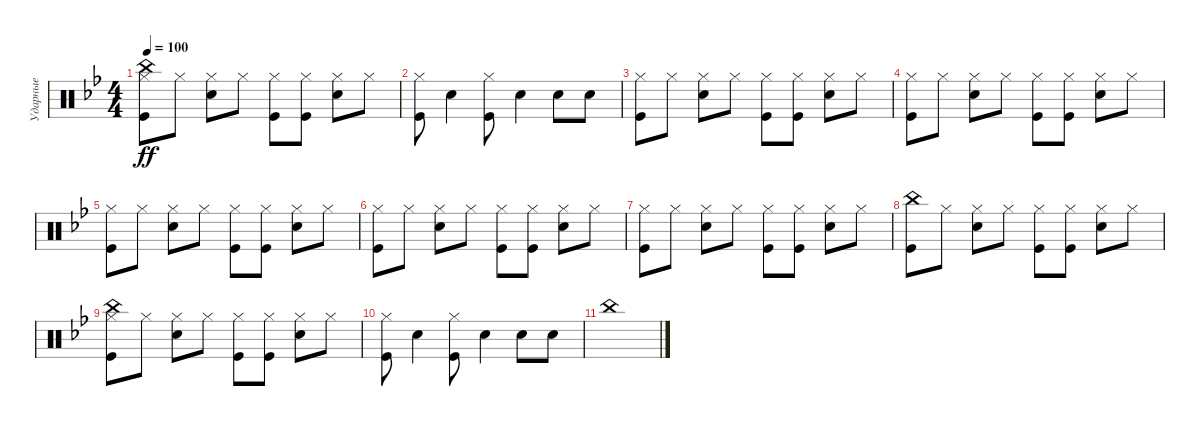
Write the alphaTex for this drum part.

\track ("Ударные" "Ударные") {instrument percussion}
\staff {score}
\articulation defaults
\ts (4 4)
\tempo 100
\clef neutral
\ks gminor
("Hi-Hat (closed)" "Kick (hit)" "China (hit)").8{dy ff} "Hi-Hat (closed)".8 ("Hi-Hat (closed)" "Snare (hit) 2").8 "Hi-Hat (closed)".8 ("Hi-Hat (closed)" "Kick (hit)").8 ("Hi-Hat (closed)" "Kick (hit)").8 ("Snare (hit) 2" "Hi-Hat (closed)").8 "Hi-Hat (closed)".8 |
("Kick (hit)" "Hi-Hat (closed)").8 "Snare (hit) 2".4 ("Kick (hit)" "Hi-Hat (closed)").8 "Snare (hit) 2".4 "Snare (hit) 2".8 "Snare (hit) 2".8 |
("Hi-Hat (closed)" "Kick (hit)").8 "Hi-Hat (closed)".8 ("Hi-Hat (closed)" "Snare (hit) 2").8 "Hi-Hat (closed)".8 ("Hi-Hat (closed)" "Kick (hit)").8 ("Hi-Hat (closed)" "Kick (hit)").8 ("Snare (hit) 2" "Hi-Hat (closed)").8 "Hi-Hat (closed)".8 |
("Hi-Hat (closed)" "Kick (hit)").8 "Hi-Hat (closed)".8 ("Hi-Hat (closed)" "Snare (hit) 2").8 "Hi-Hat (closed)".8 ("Hi-Hat (closed)" "Kick (hit)").8 ("Hi-Hat (closed)" "Kick (hit)").8 ("Snare (hit) 2" "Hi-Hat (closed)").8 "Hi-Hat (closed)".8 |
("Hi-Hat (closed)" "Kick (hit)").8 "Hi-Hat (closed)".8 ("Hi-Hat (closed)" "Snare (hit) 2").8 "Hi-Hat (closed)".8 ("Hi-Hat (closed)" "Kick (hit)").8 ("Hi-Hat (closed)" "Kick (hit)").8 ("Snare (hit) 2" "Hi-Hat (closed)").8 "Hi-Hat (closed)".8 |
("Hi-Hat (closed)" "Kick (hit)").8 "Hi-Hat (closed)".8 ("Hi-Hat (closed)" "Snare (hit) 2").8 "Hi-Hat (closed)".8 ("Hi-Hat (closed)" "Kick (hit)").8 ("Hi-Hat (closed)" "Kick (hit)").8 ("Snare (hit) 2" "Hi-Hat (closed)").8 "Hi-Hat (closed)".8 |
("Hi-Hat (closed)" "Kick (hit)").8 "Hi-Hat (closed)".8 ("Hi-Hat (closed)" "Snare (hit) 2").8 "Hi-Hat (closed)".8 ("Hi-Hat (closed)" "Kick (hit)").8 ("Hi-Hat (closed)" "Kick (hit)").8 ("Snare (hit) 2" "Hi-Hat (closed)").8 "Hi-Hat (closed)".8 |
("China (hit)" "Kick (hit)").8 "Hi-Hat (closed)".8 ("Hi-Hat (closed)" "Snare (hit) 2").8 "Hi-Hat (closed)".8 ("Hi-Hat (closed)" "Kick (hit)").8 ("Hi-Hat (closed)" "Kick (hit)").8 ("Snare (hit) 2" "Hi-Hat (closed)").8 "Hi-Hat (closed)".8 |
("Hi-Hat (closed)" "Kick (hit)" "China (hit)").8 "Hi-Hat (closed)".8 ("Hi-Hat (closed)" "Snare (hit) 2").8 "Hi-Hat (closed)".8 ("Hi-Hat (closed)" "Kick (hit)").8 ("Hi-Hat (closed)" "Kick (hit)").8 ("Snare (hit) 2" "Hi-Hat (closed)").8 "Hi-Hat (closed)".8 |
("Kick (hit)" "Hi-Hat (closed)").8 "Snare (hit) 2".4 ("Kick (hit)" "Hi-Hat (closed)").8 "Snare (hit) 2".4 "Snare (hit) 2".8 "Snare (hit) 2".8 |
"China (hit)".1
